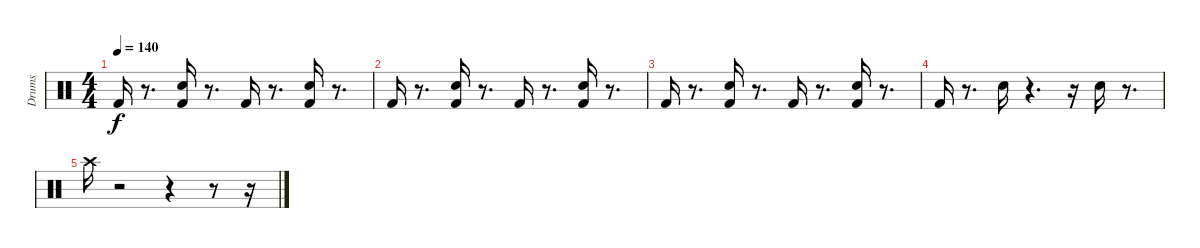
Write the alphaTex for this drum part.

\track ("Drums" "Drums") {instrument percussion}
\staff {score}
\articulation defaults
\ts (4 4)
\tempo 140
\clef neutral
\ks c "Kick (hit) 2".16{dy f}
r.8{d} ("Hand Clap (hit)" "Kick (hit) 2").16 r.8{d} "Kick (hit) 2".16 r.8{d} ("Hand Clap (hit)" "Kick (hit) 2").16 r.8{d} |
"Kick (hit) 2".16 r.8{d} ("Hand Clap (hit)" "Kick (hit) 2").16 r.8{d} "Kick (hit) 2".16 r.8{d} ("Hand Clap (hit)" "Kick (hit) 2").16 r.8{d} |
"Kick (hit) 2".16 r.8{d} ("Hand Clap (hit)" "Kick (hit) 2").16 r.8{d} "Kick (hit) 2".16 r.8{d} ("Hand Clap (hit)" "Kick (hit) 2").16 r.8{d} |
"Kick (hit) 2".16 r.8{d} "Hand Clap (hit)".16 r.4{d} r.16 "Hand Clap (hit)".16 r.8{d} |
"Crash high (hit)".16 r.2 r.4 r.8 r.16
